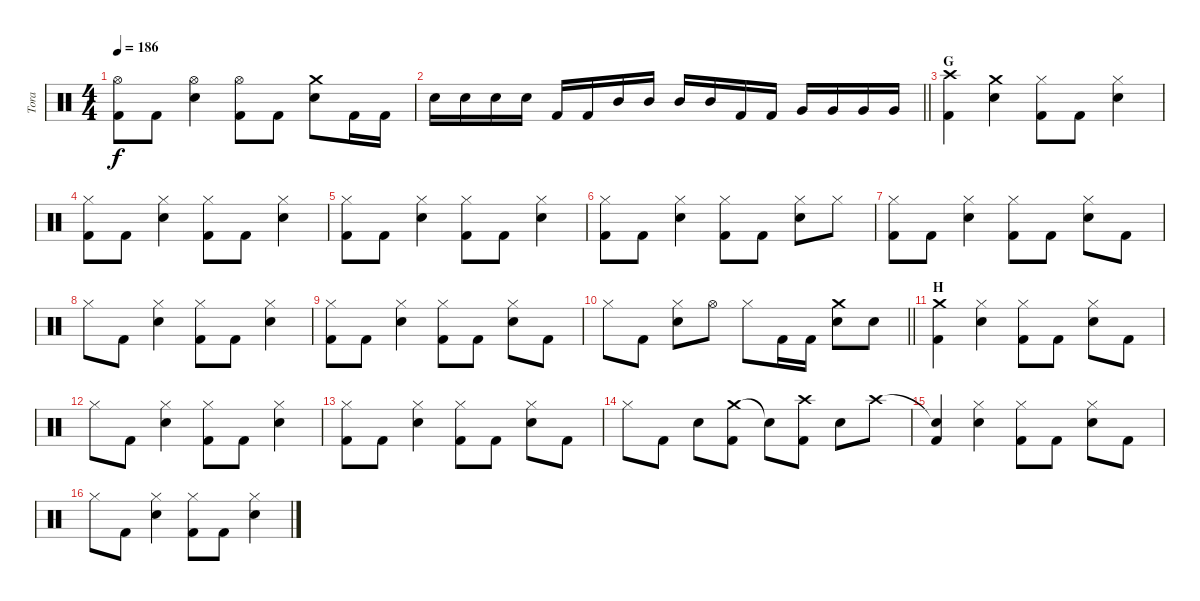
\track ("Tora" "Tora") {instrument percussion}
\staff {score}
\articulation defaults
\ts (4 4)
\tempo 186
\clef neutral
\ks c
("Hi-Hat (open)" "Kick (hit) 2").8{dy f} "Kick (hit) 2".8 ("Hi-Hat (open)" "Electric Snare (hit)").4 ("Hi-Hat (open)" "Kick (hit) 2").8 "Kick (hit) 2".8 ("Crash medium (hit)" "Electric Snare (hit)").8 "Kick (hit) 2".16 "Kick (hit) 2".16 |
\barLineRight lightlight "Electric Snare (hit)".16 "Electric Snare (hit)".16 "Electric Snare (hit)".16 "Electric Snare (hit)".16 "Kick (hit) 2".16 "Kick (hit) 2".16 "Mid Tom (hit)".16 "Mid Tom (hit)".16 "Mid Tom (hit)".16 "Mid Tom (hit)".16 "Kick (hit) 2".16 "Kick (hit) 2".16 "Very Low Tom (hit)".16 "Very Low Tom (hit)".16 "Very Low Tom (hit)".16 "Very Low Tom (hit)".16
|
\section ("" "G")
("Crash high (hit)" "Kick (hit) 2").4 ("Crash medium (hit)" "Electric Snare (hit)").4 ("Hi-Hat (closed)" "Kick (hit) 2").8 "Kick (hit) 2".8 ("Hi-Hat (closed)" "Electric Snare (hit)").4 |
("Hi-Hat (closed)" "Kick (hit) 2").8 "Kick (hit) 2".8 ("Hi-Hat (closed)" "Electric Snare (hit)").4 ("Hi-Hat (closed)" "Kick (hit) 2").8 "Kick (hit) 2".8 ("Hi-Hat (closed)" "Electric Snare (hit)").4 |
("Hi-Hat (closed)" "Kick (hit) 2").8 "Kick (hit) 2".8 ("Hi-Hat (closed)" "Electric Snare (hit)").4 ("Hi-Hat (closed)" "Kick (hit) 2").8 "Kick (hit) 2".8 ("Hi-Hat (closed)" "Electric Snare (hit)").4 |
("Hi-Hat (closed)" "Kick (hit) 2").8 "Kick (hit) 2".8 ("Hi-Hat (closed)" "Electric Snare (hit)").4 ("Hi-Hat (closed)" "Kick (hit) 2").8 "Kick (hit) 2".8 ("Hi-Hat (closed)" "Electric Snare (hit)").8 "Hi-Hat (closed)".8 |
("Hi-Hat (closed)" "Kick (hit) 2").8 "Kick (hit) 2".8 ("Hi-Hat (closed)" "Electric Snare (hit)").4 ("Hi-Hat (closed)" "Kick (hit) 2").8 "Kick (hit) 2".8 ("Hi-Hat (closed)" "Electric Snare (hit)").8 "Kick (hit) 2".8 |
"Hi-Hat (closed)".8 "Kick (hit) 2".8 ("Hi-Hat (closed)" "Electric Snare (hit)").4 ("Hi-Hat (closed)" "Kick (hit) 2").8 "Kick (hit) 2".8 ("Hi-Hat (closed)" "Electric Snare (hit)").4 |
("Hi-Hat (closed)" "Kick (hit) 2").8 "Kick (hit) 2".8 ("Hi-Hat (closed)" "Electric Snare (hit)").4 ("Hi-Hat (closed)" "Kick (hit) 2").8 "Kick (hit) 2".8 ("Hi-Hat (closed)" "Electric Snare (hit)").8 "Kick (hit) 2".8 |
\barLineRight lightlight "Hi-Hat (closed)".8 "Kick (hit) 2".8
("Hi-Hat (closed)" "Electric Snare (hit)").8 "Hi-Hat (open)".8 "Hi-Hat (closed)".8 "Kick (hit) 2".16 "Kick (hit) 2".16 ("Crash medium (hit)" "Electric Snare (hit)").8 "Electric Snare (hit)".8 |
\section ("" "H")
("Crash medium (hit)" "Kick (hit) 2").4 ("Hi-Hat (closed)" "Electric Snare (hit)").4 ("Hi-Hat (closed)" "Kick (hit) 2").8 "Kick (hit) 2".8 ("Hi-Hat (closed)" "Electric Snare (hit)").8 "Kick (hit) 2".8 |
"Hi-Hat (closed)".8 "Kick (hit) 2".8 ("Hi-Hat (closed)" "Electric Snare (hit)").4 ("Hi-Hat (closed)" "Kick (hit) 2").8 "Kick (hit) 2".8 ("Hi-Hat (closed)" "Electric Snare (hit)").4 |
("Hi-Hat (closed)" "Kick (hit) 2").8 "Kick (hit) 2".8 ("Hi-Hat (closed)" "Electric Snare (hit)").4 ("Hi-Hat (closed)" "Kick (hit) 2").8 "Kick (hit) 2".8 ("Hi-Hat (closed)" "Electric Snare (hit)").8 "Kick (hit) 2".8 |
"Hi-Hat (closed)".8 "Kick (hit) 2".8 "Electric Snare (hit)".8 ("Crash medium (hit)" "Kick (hit) 2").8 "Snare (hit)"{t}.8 ("Crash high (hit)" "Kick (hit) 2").8 "Electric Snare (hit)".8 "Crash high (hit)".8 |
("Snare (hit)"{t} "Kick (hit) 2").4 ("Hi-Hat (closed)" "Electric Snare (hit)").4 ("Hi-Hat (closed)" "Kick (hit) 2").8 "Kick (hit) 2".8 ("Hi-Hat (closed)" "Electric Snare (hit)").8 "Kick (hit) 2".8 |
"Hi-Hat (closed)".8 "Kick (hit) 2".8 ("Hi-Hat (closed)" "Electric Snare (hit)").4 ("Hi-Hat (closed)" "Kick (hit) 2").8 "Kick (hit) 2".8 ("Hi-Hat (closed)" "Electric Snare (hit)").4
